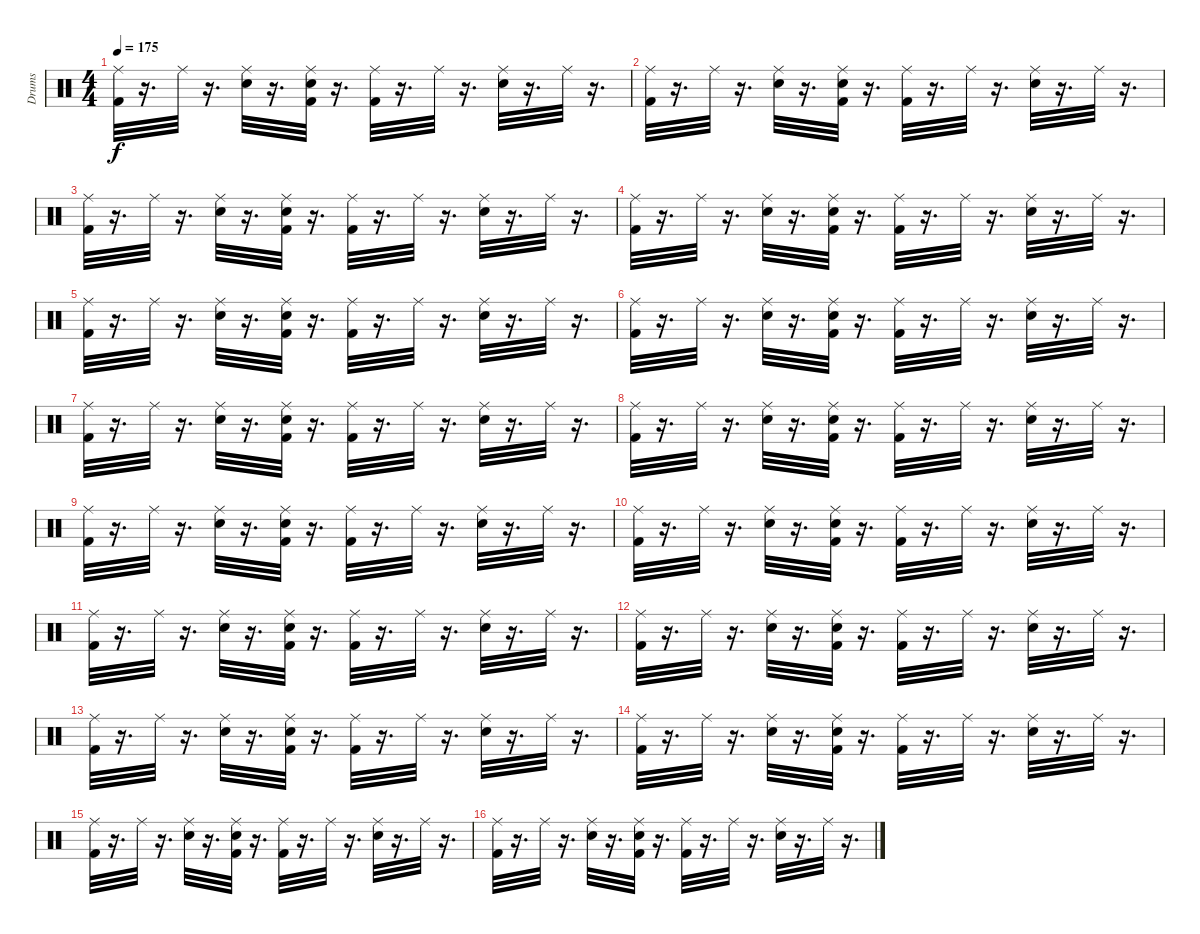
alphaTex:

\track ("Drums" "Drums") {instrument percussion}
\staff {score}
\articulation defaults
\ts (4 4)
\tempo 175
\clef neutral
\ks c
("Kick (hit) 2" "Ride (middle)").32{dy f} r.16{d} "Ride (middle)".32 r.16{d} ("Snare (hit) 2" "Ride (middle)").32 r.16{d} ("Snare (hit) 2" "Ride (middle)" "Kick (hit) 2").32 r.16{d} ("Ride (middle)" "Kick (hit) 2").32 r.16{d} "Ride (middle)".32 r.16{d} ("Snare (hit) 2" "Ride (middle)").32 r.16{d} "Ride (middle)".32 r.16{d} |
("Kick (hit) 2" "Ride (middle)").32 r.16{d} "Ride (middle)".32 r.16{d} ("Ride (middle)" "Snare (hit) 2").32 r.16{d} ("Kick (hit) 2" "Snare (hit) 2" "Ride (middle)").32 r.16{d} ("Kick (hit) 2" "Ride (middle)").32 r.16{d} "Ride (middle)".32 r.16{d} ("Snare (hit) 2" "Ride (middle)").32 r.16{d} "Ride (middle)".32 r.16{d} |
("Kick (hit) 2" "Ride (middle)").32 r.16{d} "Ride (middle)".32 r.16{d} ("Ride (middle)" "Snare (hit) 2").32 r.16{d} ("Snare (hit) 2" "Kick (hit) 2" "Ride (middle)").32 r.16{d} ("Kick (hit) 2" "Ride (middle)").32 r.16{d} "Ride (middle)".32 r.16{d} ("Snare (hit) 2" "Ride (middle)").32 r.16{d} "Ride (middle)".32 r.16{d} |
("Ride (middle)" "Kick (hit) 2").32 r.16{d} "Ride (middle)".32 r.16{d} ("Ride (middle)" "Snare (hit) 2").32 r.16{d} ("Ride (middle)" "Snare (hit) 2" "Kick (hit) 2").32 r.16{d} ("Ride (middle)" "Kick (hit) 2").32 r.16{d} "Ride (middle)".32 r.16{d} ("Ride (middle)" "Snare (hit) 2").32 r.16{d} "Ride (middle)".32 r.16{d} |
("Kick (hit) 2" "Ride (middle)").32 r.16{d} "Ride (middle)".32 r.16{d} ("Snare (hit) 2" "Ride (middle)").32 r.16{d} ("Snare (hit) 2" "Ride (middle)" "Kick (hit) 2").32 r.16{d} ("Ride (middle)" "Kick (hit) 2").32 r.16{d} "Ride (middle)".32 r.16{d} ("Snare (hit) 2" "Ride (middle)").32 r.16{d} "Ride (middle)".32 r.16{d} |
("Kick (hit) 2" "Ride (middle)").32 r.16{d} "Ride (middle)".32 r.16{d} ("Ride (middle)" "Snare (hit) 2").32 r.16{d} ("Kick (hit) 2" "Snare (hit) 2" "Ride (middle)").32 r.16{d} ("Kick (hit) 2" "Ride (middle)").32 r.16{d} "Ride (middle)".32 r.16{d} ("Snare (hit) 2" "Ride (middle)").32 r.16{d} "Ride (middle)".32 r.16{d} |
("Kick (hit) 2" "Ride (middle)").32 r.16{d} "Ride (middle)".32 r.16{d} ("Ride (middle)" "Snare (hit) 2").32 r.16{d} ("Snare (hit) 2" "Kick (hit) 2" "Ride (middle)").32 r.16{d} ("Kick (hit) 2" "Ride (middle)").32 r.16{d} "Ride (middle)".32 r.16{d} ("Snare (hit) 2" "Ride (middle)").32 r.16{d} "Ride (middle)".32 r.16{d} |
("Ride (middle)" "Kick (hit) 2").32 r.16{d} "Ride (middle)".32 r.16{d} ("Ride (middle)" "Snare (hit) 2").32 r.16{d} ("Ride (middle)" "Snare (hit) 2" "Kick (hit) 2").32 r.16{d} ("Ride (middle)" "Kick (hit) 2").32 r.16{d} "Ride (middle)".32 r.16{d} ("Ride (middle)" "Snare (hit) 2").32 r.16{d} "Ride (middle)".32 r.16{d} |
("Kick (hit) 2" "Ride (middle)").32 r.16{d} "Ride (middle)".32 r.16{d} ("Snare (hit) 2" "Ride (middle)").32 r.16{d} ("Snare (hit) 2" "Ride (middle)" "Kick (hit) 2").32 r.16{d} ("Ride (middle)" "Kick (hit) 2").32 r.16{d} "Ride (middle)".32 r.16{d} ("Snare (hit) 2" "Ride (middle)").32 r.16{d} "Ride (middle)".32 r.16{d} |
("Kick (hit) 2" "Ride (middle)").32 r.16{d} "Ride (middle)".32 r.16{d} ("Ride (middle)" "Snare (hit) 2").32 r.16{d} ("Kick (hit) 2" "Snare (hit) 2" "Ride (middle)").32 r.16{d} ("Kick (hit) 2" "Ride (middle)").32 r.16{d} "Ride (middle)".32 r.16{d} ("Snare (hit) 2" "Ride (middle)").32 r.16{d} "Ride (middle)".32 r.16{d} |
("Kick (hit) 2" "Ride (middle)").32 r.16{d} "Ride (middle)".32 r.16{d} ("Ride (middle)" "Snare (hit) 2").32 r.16{d} ("Snare (hit) 2" "Kick (hit) 2" "Ride (middle)").32 r.16{d} ("Kick (hit) 2" "Ride (middle)").32 r.16{d} "Ride (middle)".32 r.16{d} ("Snare (hit) 2" "Ride (middle)").32 r.16{d} "Ride (middle)".32 r.16{d} |
("Ride (middle)" "Kick (hit) 2").32 r.16{d} "Ride (middle)".32 r.16{d} ("Ride (middle)" "Snare (hit) 2").32 r.16{d} ("Ride (middle)" "Snare (hit) 2" "Kick (hit) 2").32 r.16{d} ("Ride (middle)" "Kick (hit) 2").32 r.16{d} "Ride (middle)".32 r.16{d} ("Ride (middle)" "Snare (hit) 2").32 r.16{d} "Ride (middle)".32 r.16{d} |
("Kick (hit) 2" "Ride (middle)").32 r.16{d} "Ride (middle)".32 r.16{d} ("Snare (hit) 2" "Ride (middle)").32 r.16{d} ("Snare (hit) 2" "Ride (middle)" "Kick (hit) 2").32 r.16{d} ("Ride (middle)" "Kick (hit) 2").32 r.16{d} "Ride (middle)".32 r.16{d} ("Snare (hit) 2" "Ride (middle)").32 r.16{d} "Ride (middle)".32 r.16{d} |
("Kick (hit) 2" "Ride (middle)").32 r.16{d} "Ride (middle)".32 r.16{d} ("Ride (middle)" "Snare (hit) 2").32 r.16{d} ("Kick (hit) 2" "Snare (hit) 2" "Ride (middle)").32 r.16{d} ("Kick (hit) 2" "Ride (middle)").32 r.16{d} "Ride (middle)".32 r.16{d} ("Snare (hit) 2" "Ride (middle)").32 r.16{d} "Ride (middle)".32 r.16{d} |
("Kick (hit) 2" "Ride (middle)").32 r.16{d} "Ride (middle)".32 r.16{d} ("Ride (middle)" "Snare (hit) 2").32 r.16{d} ("Snare (hit) 2" "Kick (hit) 2" "Ride (middle)").32 r.16{d} ("Kick (hit) 2" "Ride (middle)").32 r.16{d} "Ride (middle)".32 r.16{d} ("Snare (hit) 2" "Ride (middle)").32 r.16{d} "Ride (middle)".32 r.16{d} |
("Kick (hit) 2" "Ride (middle)").32 r.16{d} "Ride (middle)".32 r.16{d} ("Ride (middle)" "Snare (hit) 2").32 r.16{d} ("Snare (hit) 2" "Kick (hit) 2" "Ride (middle)").32 r.16{d} ("Kick (hit) 2" "Ride (middle)").32 r.16{d} "Ride (middle)".32 r.16{d} ("Snare (hit) 2" "Ride (middle)").32 r.16{d} "Ride (middle)".32 r.16{d}
